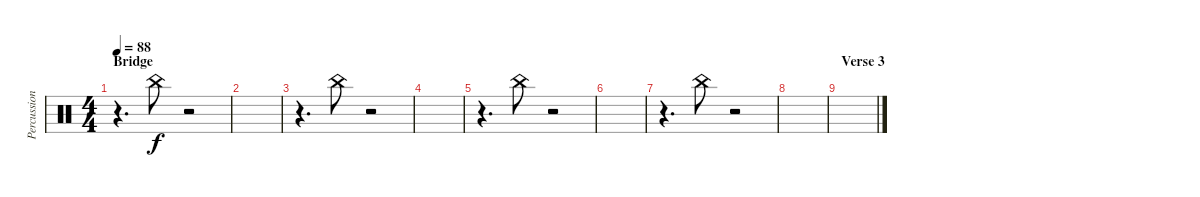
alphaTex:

\track ("Percussion" "Percussion") {instrument percussion}
\staff {score}
\articulation defaults
\ts (4 4)
\section ("" "Bridge")
\tempo 88
\clef neutral
\ks c
r.4{d dy pp} "China (hit)".8{dy f} r.2 |
|
r.4{d} "China (hit)".8 r.2 |
|
r.4{d} "China (hit)".8 r.2 |
|
r.4{d} "China (hit)".8 r.2 |
|
\section ("" "Verse 3")
